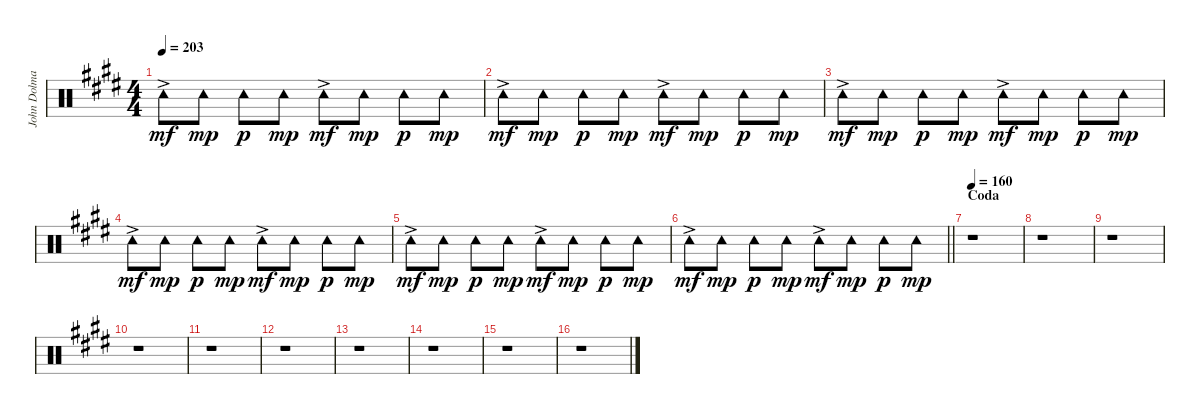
\track ("John Dolmayan [Tambourine]" "John Dolma") {instrument percussion}
\staff {score}
\articulation defaults
\ts (4 4)
\tempo 203
\clef neutral
\ks c#minor "Tambourine (hit)"{ac}.8{dy mf} "Tambourine (hit)".8{dy mp} "Tambourine (hit)".8{dy p} "Tambourine (hit)".8{dy mp} "Tambourine (hit)"{ac}.8{dy mf} "Tambourine (hit)".8{dy mp} "Tambourine (hit)".8{dy p} "Tambourine (hit)".8{dy mp}
|
"Tambourine (hit)"{ac}.8{dy mf} "Tambourine (hit)".8{dy mp} "Tambourine (hit)".8{dy p} "Tambourine (hit)".8{dy mp} "Tambourine (hit)"{ac}.8{dy mf} "Tambourine (hit)".8{dy mp} "Tambourine (hit)".8{dy p} "Tambourine (hit)".8{dy mp} |
"Tambourine (hit)"{ac}.8{dy mf} "Tambourine (hit)".8{dy mp} "Tambourine (hit)".8{dy p} "Tambourine (hit)".8{dy mp} "Tambourine (hit)"{ac}.8{dy mf} "Tambourine (hit)".8{dy mp} "Tambourine (hit)".8{dy p} "Tambourine (hit)".8{dy mp} |
"Tambourine (hit)"{ac}.8{dy mf} "Tambourine (hit)".8{dy mp} "Tambourine (hit)".8{dy p} "Tambourine (hit)".8{dy mp} "Tambourine (hit)"{ac}.8{dy mf} "Tambourine (hit)".8{dy mp} "Tambourine (hit)".8{dy p} "Tambourine (hit)".8{dy mp} |
"Tambourine (hit)"{ac}.8{dy mf} "Tambourine (hit)".8{dy mp} "Tambourine (hit)".8{dy p} "Tambourine (hit)".8{dy mp} "Tambourine (hit)"{ac}.8{dy mf} "Tambourine (hit)".8{dy mp} "Tambourine (hit)".8{dy p} "Tambourine (hit)".8{dy mp} |
\barLineRight lightlight "Tambourine (hit)"{ac}.8{dy mf} "Tambourine (hit)".8{dy mp} "Tambourine (hit)".8{dy p} "Tambourine (hit)".8{dy mp} "Tambourine (hit)"{ac}.8{dy mf} "Tambourine (hit)".8{dy mp} "Tambourine (hit)".8{dy p} "Tambourine (hit)".8{dy mp}
|
\section ("" "Coda")
\tempo 160
r.1 |
r.1 |
r.1 |
r.1 |
r.1 |
r.1 |
r.1 |
r.1 |
r.1 |
r.1
